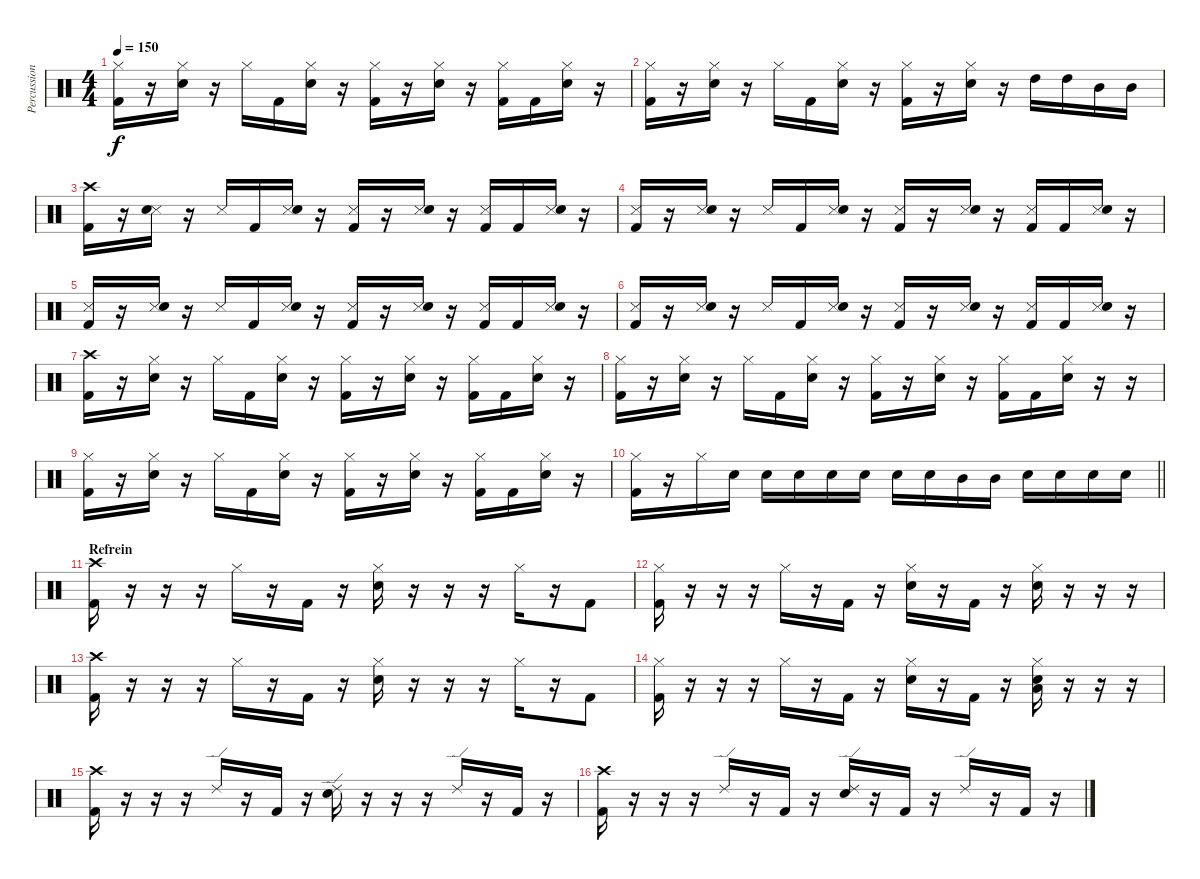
\track ("Percussion" "Percussion") {instrument percussion}
\staff {score}
\articulation defaults
\ts (4 4)
\tempo 150
\clef neutral
\ks c
("Hi-Hat (closed)" "Kick (hit) 2").16{dy f} r.16 ("Hi-Hat (closed)" "Electric Snare (hit)").16 r.16 "Hi-Hat (closed)".16 "Kick (hit) 2".16 ("Hi-Hat (closed)" "Electric Snare (hit)").16 r.16 ("Hi-Hat (closed)" "Kick (hit) 2").16 r.16 ("Hi-Hat (closed)" "Electric Snare (hit)").16 r.16 ("Hi-Hat (closed)" "Kick (hit) 2").16 "Kick (hit) 2".16 ("Hi-Hat (closed)" "Electric Snare (hit)").16 r.16 |
("Hi-Hat (closed)" "Kick (hit) 2").16 r.16 ("Hi-Hat (closed)" "Electric Snare (hit)").16 r.16 "Hi-Hat (closed)".16 "Kick (hit) 2".16 ("Hi-Hat (closed)" "Electric Snare (hit)").16 r.16 ("Hi-Hat (closed)" "Kick (hit) 2").16 r.16 ("Hi-Hat (closed)" "Electric Snare (hit)").16 r.16 "High Tom (hit)".16 "High Tom (hit)".16 "Mid Tom (hit)".16 "Mid Tom (hit)".16 |
("Crash high (hit)" "Kick (hit) 2").16 r.16 ("Metronome (hit)" "Electric Snare (hit)").16 r.16 "Metronome (hit)".16 "Kick (hit) 2".16 ("Metronome (hit)" "Electric Snare (hit)").16 r.16 ("Metronome (hit)" "Kick (hit) 2").16 r.16 ("Metronome (hit)" "Electric Snare (hit)").16 r.16 ("Metronome (hit)" "Kick (hit) 2").16 "Kick (hit) 2".16 ("Metronome (hit)" "Electric Snare (hit)").16 r.16 |
("Metronome (hit)" "Kick (hit) 2").16 r.16 ("Metronome (hit)" "Electric Snare (hit)").16 r.16 "Metronome (hit)".16 "Kick (hit) 2".16 ("Metronome (hit)" "Electric Snare (hit)").16 r.16 ("Metronome (hit)" "Kick (hit) 2").16 r.16 ("Metronome (hit)" "Electric Snare (hit)").16 r.16 ("Metronome (hit)" "Kick (hit) 2").16 "Kick (hit) 2".16 ("Metronome (hit)" "Electric Snare (hit)").16 r.16 |
("Metronome (hit)" "Kick (hit) 2").16 r.16 ("Metronome (hit)" "Electric Snare (hit)").16 r.16 "Metronome (hit)".16 "Kick (hit) 2".16 ("Metronome (hit)" "Electric Snare (hit)").16 r.16 ("Metronome (hit)" "Kick (hit) 2").16 r.16 ("Metronome (hit)" "Electric Snare (hit)").16 r.16 ("Metronome (hit)" "Kick (hit) 2").16 "Kick (hit) 2".16 ("Metronome (hit)" "Electric Snare (hit)").16 r.16 |
("Metronome (hit)" "Kick (hit) 2").16 r.16 ("Metronome (hit)" "Electric Snare (hit)").16 r.16 "Metronome (hit)".16 "Kick (hit) 2".16 ("Metronome (hit)" "Electric Snare (hit)").16 r.16 ("Metronome (hit)" "Kick (hit) 2").16 r.16 ("Metronome (hit)" "Electric Snare (hit)").16 r.16 ("Metronome (hit)" "Kick (hit) 2").16 "Kick (hit) 2".16 ("Metronome (hit)" "Electric Snare (hit)").16 r.16 |
("Crash high (hit)" "Kick (hit) 2").16 r.16 ("Hi-Hat (closed)" "Electric Snare (hit)").16 r.16 "Hi-Hat (closed)".16 "Kick (hit) 2".16 ("Hi-Hat (closed)" "Electric Snare (hit)").16 r.16 ("Hi-Hat (closed)" "Kick (hit) 2").16 r.16 ("Hi-Hat (closed)" "Electric Snare (hit)").16 r.16 ("Hi-Hat (closed)" "Kick (hit) 2").16 "Kick (hit) 2".16 ("Hi-Hat (closed)" "Electric Snare (hit)").16 r.16 |
("Hi-Hat (closed)" "Kick (hit) 2").16 r.16 ("Hi-Hat (closed)" "Electric Snare (hit)").16 r.16 "Hi-Hat (closed)".16 "Kick (hit) 2".16 ("Hi-Hat (closed)" "Electric Snare (hit)").16 r.16 ("Hi-Hat (closed)" "Kick (hit) 2").16 r.16 ("Hi-Hat (closed)" "Electric Snare (hit)").16 r.16 ("Hi-Hat (closed)" "Kick (hit) 2").16 "Kick (hit) 2".16 ("Hi-Hat (closed)" "Electric Snare (hit)").16 r.16 r.16 |
("Hi-Hat (closed)" "Kick (hit) 2").16 r.16 ("Hi-Hat (closed)" "Electric Snare (hit)").16 r.16 "Hi-Hat (closed)".16 "Kick (hit) 2".16 ("Hi-Hat (closed)" "Electric Snare (hit)").16 r.16 ("Hi-Hat (closed)" "Kick (hit) 2").16 r.16 ("Hi-Hat (closed)" "Electric Snare (hit)").16 r.16 ("Hi-Hat (closed)" "Kick (hit) 2").16 "Kick (hit) 2".16 ("Hi-Hat (closed)" "Electric Snare (hit)").16 r.16 |
\barLineRight lightlight
("Hi-Hat (closed)" "Kick (hit) 2").16 r.16 "Hi-Hat (closed)".16 "Electric Snare (hit)".16 "Electric Snare (hit)".16 "Electric Snare (hit)".16 "Electric Snare (hit)".16 "Electric Snare (hit)".16 "Electric Snare (hit)".16 "Electric Snare (hit)".16 "Mid Tom (hit)".16 "Mid Tom (hit)".16 "Electric Snare (hit)".16 "Electric Snare (hit)".16 "Electric Snare (hit)".16 "Electric Snare (hit)".16 |
\section ("" "Refrein")
("Crash high (hit)" "Kick (hit) 2").16 r.16 r.16 r.16 "Hi-Hat (closed)".16 r.16 "Kick (hit) 2".16 r.16 ("Hi-Hat (closed)" "Electric Snare (hit)").16 r.16 r.16 r.16 "Hi-Hat (closed)".16 r.16 "Kick (hit) 2".8 |
("Hi-Hat (closed)" "Kick (hit) 2").16 r.16 r.16 r.16 "Hi-Hat (closed)".16 r.16 "Kick (hit) 2".16 r.16 ("Hi-Hat (closed)" "Electric Snare (hit)").16 r.16 "Kick (hit) 2".16 r.16 ("Hi-Hat (closed)" "Electric Snare (hit)").16 r.16 r.16 r.16 |
("Crash high (hit)" "Kick (hit) 2").16 r.16 r.16 r.16 "Hi-Hat (closed)".16 r.16 "Kick (hit) 2".16 r.16 ("Hi-Hat (closed)" "Electric Snare (hit)").16 r.16 r.16 r.16 "Hi-Hat (closed)".16 r.16 "Kick (hit) 2".8 |
("Hi-Hat (closed)" "Kick (hit) 2").16 r.16 r.16 r.16 "Hi-Hat (closed)".16 r.16 "Kick (hit) 2".16 r.16 ("Hi-Hat (closed)" "Electric Snare (hit)").16 r.16 "Kick (hit) 2".16 r.16 ("Hi-Hat (closed)" "Electric Snare (hit)" "Low Floor Tom (hit)").16 r.16 r.16 r.16 |
("Crash high (hit)" "Kick (hit) 2").16 r.16 r.16 r.16 "Ride (edge) 2".16 r.16 "Kick (hit) 2".16 r.16 ("Ride (edge) 2" "Electric Snare (hit)").16 r.16 r.16 r.16 "Ride (edge) 2".16 r.16 "Kick (hit) 2".16 r.16 |
("Crash high (hit)" "Kick (hit) 2").16 r.16 r.16 r.16 "Ride (edge) 2".16 r.16 "Kick (hit) 2".16 r.16 ("Ride (edge) 2" "Electric Snare (hit)").16 r.16 "Kick (hit) 2".16 r.16 "Ride (edge) 2".16 r.16 "Kick (hit) 2".16 r.16
